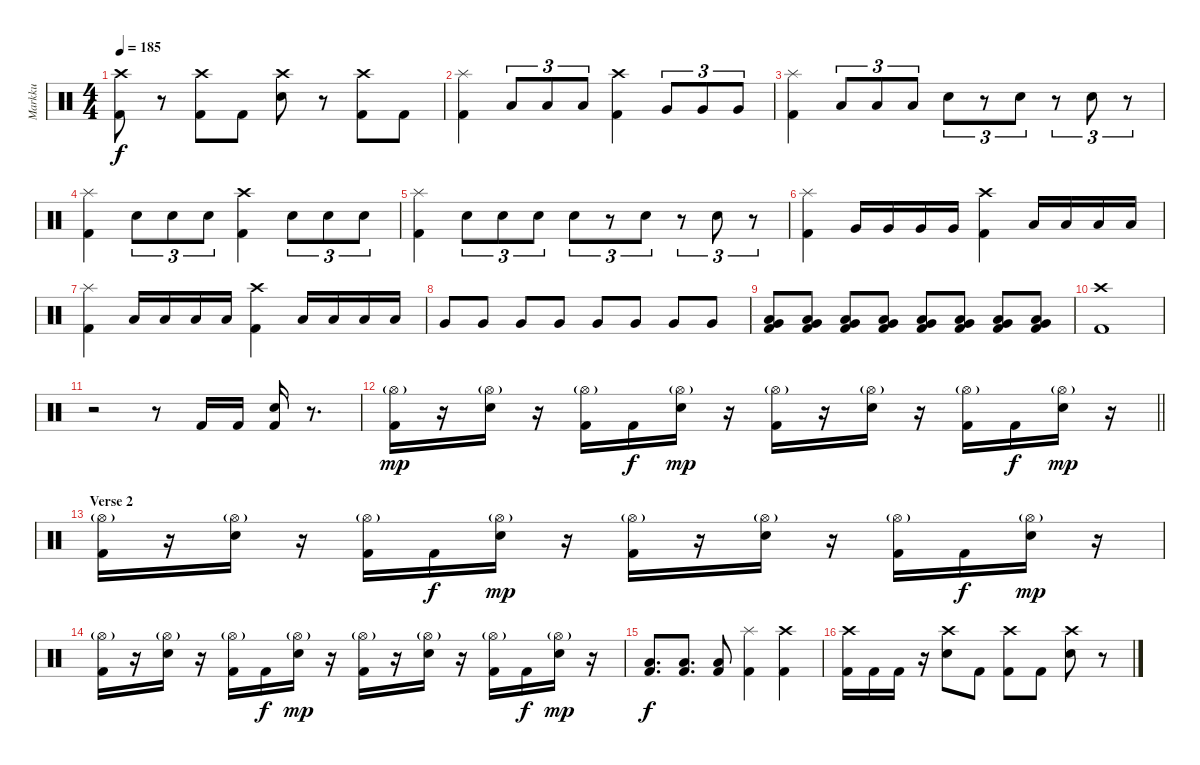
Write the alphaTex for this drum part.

\track ("Markku" "Markku") {instrument percussion}
\staff {score}
\articulation defaults
\ts (4 4)
\tempo 185
\clef neutral
\ks c
("Kick (hit) 2" "Crash high (hit)").8{dy f} r.8 ("Kick (hit) 2" "Crash high (hit)").8 "Kick (hit) 2".8 ("Snare (hit) 2" "Crash high (hit)").8 r.8 ("Kick (hit) 2" "Crash high (hit)").8 "Kick (hit) 2".8 |
("Kick (hit) 2" "Splash (hit)").4 "Low Tom (hit)".8{tu (3 2)} "Low Tom (hit)".8{tu (3 2)} "Low Tom (hit)".8{tu (3 2)} ("Kick (hit) 2" "Crash high (hit)").4 "Very Low Tom (hit)".8{tu (3 2)} "Very Low Tom (hit)".8{tu (3 2)} "Very Low Tom (hit)".8{tu (3 2)} |
("Kick (hit) 2" "Splash (hit)").4 "Low Floor Tom (hit)".8{tu (3 2)} "Low Floor Tom (hit)".8{tu (3 2)} "Low Floor Tom (hit)".8{tu (3 2)} "Snare (hit) 2".8{tu (3 2)} r.8{tu (3 2)} "Snare (hit) 2".8{tu (3 2)} r.8{tu (3 2)} "Snare (hit) 2".8{tu (3 2)} r.8{tu (3 2)} |
("Kick (hit) 2" "Splash (hit)").4 "Snare (hit) 2".8{tu (3 2)} "Snare (hit) 2".8{tu (3 2)} "Snare (hit) 2".8{tu (3 2)} ("Kick (hit) 2" "Crash high (hit)").4 "Snare (hit) 2".8{tu (3 2)} "Snare (hit) 2".8{tu (3 2)} "Snare (hit) 2".8{tu (3 2)} |
("Kick (hit) 2" "Splash (hit)").4 "Snare (hit) 2".8{tu (3 2)} "Snare (hit) 2".8{tu (3 2)} "Snare (hit) 2".8{tu (3 2)} "Snare (hit) 2".8{tu (3 2)} r.8{tu (3 2)} "Snare (hit) 2".8{tu (3 2)} r.8{tu (3 2)} "Snare (hit) 2".8{tu (3 2)} r.8{tu (3 2)} |
("Kick (hit) 2" "Splash (hit)").4 "Very Low Tom (hit)".16 "Very Low Tom (hit)".16 "Very Low Tom (hit)".16 "Very Low Tom (hit)".16 ("Kick (hit) 2" "Crash high (hit)").4 "Low Tom (hit)".16 "Low Tom (hit)".16 "Low Tom (hit)".16 "Low Tom (hit)".16 |
("Kick (hit) 2" "Splash (hit)").4 "Low Floor Tom (hit)".16 "Low Floor Tom (hit)".16 "Low Floor Tom (hit)".16 "Low Floor Tom (hit)".16 ("Kick (hit) 2" "Crash high (hit)").4 "Low Tom (hit)".16 "Low Tom (hit)".16 "Low Tom (hit)".16 "Low Tom (hit)".16 |
"Very Low Tom (hit)".8 "Very Low Tom (hit)".8 "Very Low Tom (hit)".8 "Very Low Tom (hit)".8 "Very Low Tom (hit)".8 "Very Low Tom (hit)".8 "Very Low Tom (hit)".8 "Very Low Tom (hit)".8 |
("Low Tom (hit)" "Very Low Tom (hit)" "Kick (hit) 2").8 ("Low Tom (hit)" "Very Low Tom (hit)" "Kick (hit) 2").8 ("Low Tom (hit)" "Very Low Tom (hit)" "Kick (hit) 2").8 ("Low Tom (hit)" "Very Low Tom (hit)" "Kick (hit) 2").8 ("Low Tom (hit)" "Very Low Tom (hit)" "Kick (hit) 2").8 ("Low Tom (hit)" "Very Low Tom (hit)" "Kick (hit) 2").8 ("Low Tom (hit)" "Very Low Tom (hit)" "Kick (hit) 2").8 ("Low Tom (hit)" "Very Low Tom (hit)" "Kick (hit) 2").8 |
("Kick (hit) 2" "Crash high (hit)").1 |
r.2 r.8 "Kick (hit) 2".16 "Kick (hit) 2".16 ("Kick (hit) 2" "Snare (hit) 2").16 r.8{d} |
\barLineRight lightlight
("Kick (hit) 2" "Hi-Hat (open)"{g}).16{dy mp} r.16 ("Snare (hit) 2" "Hi-Hat (open)"{g}).16 r.16 ("Kick (hit) 2" "Hi-Hat (open)"{g}).16 "Kick (hit) 2".16{dy f} ("Snare (hit) 2" "Hi-Hat (open)"{g}).16{dy mp} r.16 ("Kick (hit) 2" "Hi-Hat (open)"{g}).16 r.16 ("Snare (hit) 2" "Hi-Hat (open)"{g}).16 r.16 ("Kick (hit) 2" "Hi-Hat (open)"{g}).16 "Kick (hit) 2".16{dy f} ("Snare (hit) 2" "Hi-Hat (open)"{g}).16{dy mp} r.16 |
\section ("" "Verse 2")
("Kick (hit) 2" "Hi-Hat (open)"{g}).16 r.16 ("Snare (hit) 2" "Hi-Hat (open)"{g}).16 r.16 ("Kick (hit) 2" "Hi-Hat (open)"{g}).16 "Kick (hit) 2".16{dy f} ("Snare (hit) 2" "Hi-Hat (open)"{g}).16{dy mp} r.16 ("Kick (hit) 2" "Hi-Hat (open)"{g}).16 r.16 ("Snare (hit) 2" "Hi-Hat (open)"{g}).16 r.16 ("Kick (hit) 2" "Hi-Hat (open)"{g}).16 "Kick (hit) 2".16{dy f} ("Snare (hit) 2" "Hi-Hat (open)"{g}).16{dy mp} r.16 |
("Kick (hit) 2" "Hi-Hat (open)"{g}).16 r.16 ("Snare (hit) 2" "Hi-Hat (open)"{g}).16 r.16 ("Kick (hit) 2" "Hi-Hat (open)"{g}).16 "Kick (hit) 2".16{dy f} ("Snare (hit) 2" "Hi-Hat (open)"{g}).16{dy mp} r.16 ("Kick (hit) 2" "Hi-Hat (open)"{g}).16 r.16 ("Snare (hit) 2" "Hi-Hat (open)"{g}).16 r.16 ("Kick (hit) 2" "Hi-Hat (open)"{g}).16 "Kick (hit) 2".16{dy f} ("Snare (hit) 2" "Hi-Hat (open)"{g}).16{dy mp} r.16 |
("Kick (hit) 2" "Low Tom (hit)").8{d dy f} ("Kick (hit) 2" "Low Tom (hit)").8{d} ("Kick (hit) 2" "Low Floor Tom (hit)").8 ("Kick (hit) 2" "Splash (hit)").4 ("Kick (hit) 2" "Crash high (hit)").4 |
("Kick (hit) 2" "Crash high (hit)").16 "Kick (hit) 2".16 "Kick (hit) 2".16 r.16 ("Snare (hit) 2" "Crash high (hit)").8 "Kick (hit) 2".8 ("Kick (hit) 2" "Crash high (hit)").8 "Kick (hit) 2".8 ("Snare (hit) 2" "Crash high (hit)").8 r.8
